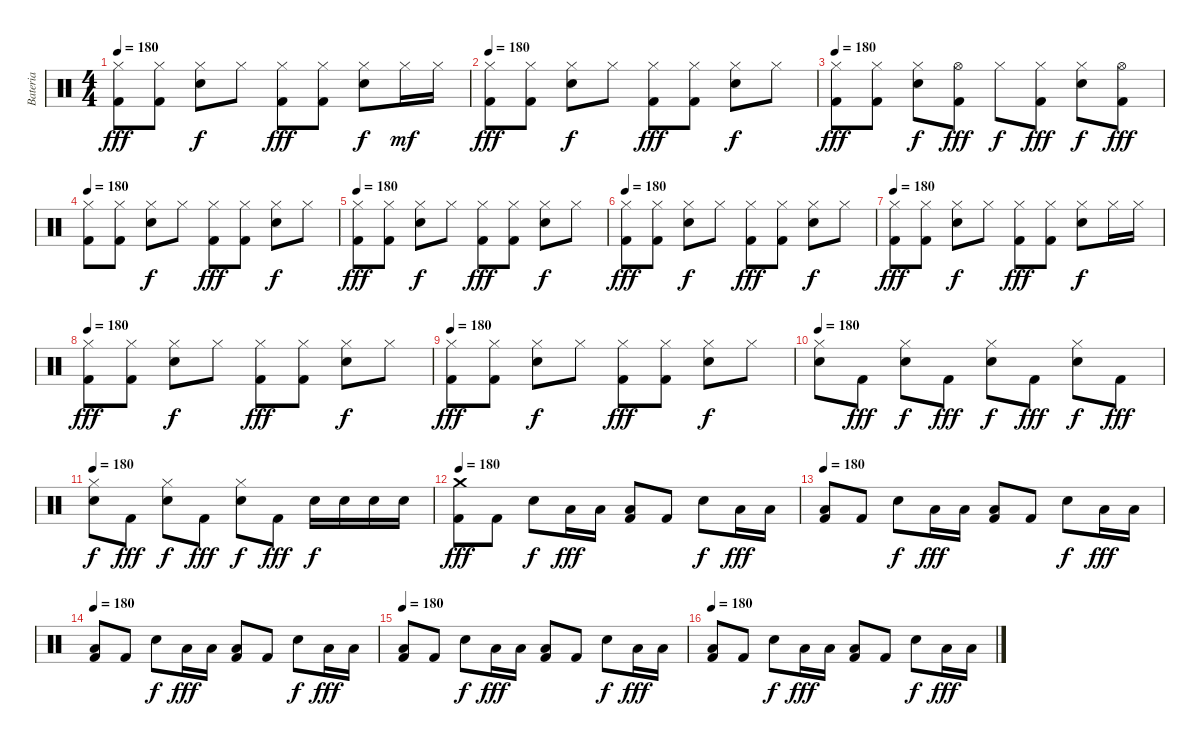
\track ("Bateria" "Bateria") {instrument percussion}
\staff {score}
\articulation defaults
\ts (4 4)
\tempo 180
\clef neutral
\ks c
("Hi-Hat (closed)" "Kick (hit) 2").8{dy fff} ("Hi-Hat (closed)" "Kick (hit) 2").8 ("Hi-Hat (closed)" "Electric Snare (hit)").8{dy f} "Hi-Hat (closed)".8 ("Hi-Hat (closed)" "Kick (hit) 2").8{dy fff} ("Hi-Hat (closed)" "Kick (hit) 2").8 ("Hi-Hat (closed)" "Electric Snare (hit)").8{dy f} "Hi-Hat (closed)".16{dy mf} "Hi-Hat (closed)".16 |
\tempo 180
("Hi-Hat (closed)" "Kick (hit) 2").8{dy fff} ("Hi-Hat (closed)" "Kick (hit) 2").8 ("Hi-Hat (closed)" "Electric Snare (hit)").8{dy f} "Hi-Hat (closed)".8 ("Hi-Hat (closed)" "Kick (hit) 2").8{dy fff} ("Hi-Hat (closed)" "Kick (hit) 2").8 ("Hi-Hat (closed)" "Electric Snare (hit)").8{dy f} "Hi-Hat (closed)".8 |
\tempo 180
("Hi-Hat (closed)" "Kick (hit) 2").8{dy fff} ("Hi-Hat (closed)" "Kick (hit) 2").8 ("Hi-Hat (closed)" "Electric Snare (hit)").8{dy f} ("Hi-Hat (open)" "Kick (hit) 2").8{dy fff} "Hi-Hat (closed)".8{dy f} ("Hi-Hat (closed)" "Kick (hit) 2").8{dy fff} ("Hi-Hat (closed)" "Electric Snare (hit)").8{dy f} ("Hi-Hat (open)" "Kick (hit) 2").8{dy fff} |
\tempo 180
("Hi-Hat (closed)" "Kick (hit) 2").8 ("Hi-Hat (closed)" "Kick (hit) 2").8 ("Hi-Hat (closed)" "Electric Snare (hit)").8{dy f} "Hi-Hat (closed)".8 ("Hi-Hat (closed)" "Kick (hit) 2").8{dy fff} ("Hi-Hat (closed)" "Kick (hit) 2").8 ("Hi-Hat (closed)" "Electric Snare (hit)").8{dy f} "Hi-Hat (closed)".8 |
\tempo 180
("Hi-Hat (closed)" "Kick (hit) 2").8{dy fff} ("Hi-Hat (closed)" "Kick (hit) 2").8 ("Hi-Hat (closed)" "Electric Snare (hit)").8{dy f} "Hi-Hat (closed)".8 ("Hi-Hat (closed)" "Kick (hit) 2").8{dy fff} ("Hi-Hat (closed)" "Kick (hit) 2").8 ("Hi-Hat (closed)" "Electric Snare (hit)").8{dy f} "Hi-Hat (closed)".8 |
\tempo 180
("Hi-Hat (closed)" "Kick (hit) 2").8{dy fff} ("Hi-Hat (closed)" "Kick (hit) 2").8 ("Hi-Hat (closed)" "Electric Snare (hit)").8{dy f} "Hi-Hat (closed)".8 ("Hi-Hat (closed)" "Kick (hit) 2").8{dy fff} ("Hi-Hat (closed)" "Kick (hit) 2").8 ("Hi-Hat (closed)" "Electric Snare (hit)").8{dy f} "Hi-Hat (closed)".8 |
\tempo 180
("Hi-Hat (closed)" "Kick (hit) 2").8{dy fff} ("Hi-Hat (closed)" "Kick (hit) 2").8 ("Hi-Hat (closed)" "Electric Snare (hit)").8{dy f} "Hi-Hat (closed)".8 ("Hi-Hat (closed)" "Kick (hit) 2").8{dy fff} ("Hi-Hat (closed)" "Kick (hit) 2").8 ("Hi-Hat (closed)" "Electric Snare (hit)").8{dy f} "Hi-Hat (closed)".16 "Hi-Hat (closed)".16 |
\tempo 180
("Hi-Hat (closed)" "Kick (hit) 2").8{dy fff} ("Hi-Hat (closed)" "Kick (hit) 2").8 ("Hi-Hat (closed)" "Electric Snare (hit)").8{dy f} "Hi-Hat (closed)".8 ("Hi-Hat (closed)" "Kick (hit) 2").8{dy fff} ("Hi-Hat (closed)" "Kick (hit) 2").8 ("Hi-Hat (closed)" "Electric Snare (hit)").8{dy f} "Hi-Hat (closed)".8 |
\tempo 180
("Hi-Hat (closed)" "Kick (hit) 2").8{dy fff} ("Hi-Hat (closed)" "Kick (hit) 2").8 ("Hi-Hat (closed)" "Electric Snare (hit)").8{dy f} "Hi-Hat (closed)".8 ("Hi-Hat (closed)" "Kick (hit) 2").8{dy fff} ("Hi-Hat (closed)" "Kick (hit) 2").8 ("Hi-Hat (closed)" "Electric Snare (hit)").8{dy f} "Hi-Hat (closed)".8 |
\tempo 180
("Hi-Hat (closed)" "Electric Snare (hit)").8 "Kick (hit) 2".8{dy fff} ("Hi-Hat (closed)" "Electric Snare (hit)").8{dy f} "Kick (hit) 2".8{dy fff} ("Hi-Hat (closed)" "Electric Snare (hit)").8{dy f} "Kick (hit) 2".8{dy fff} ("Hi-Hat (closed)" "Electric Snare (hit)").8{dy f} "Kick (hit) 2".8{dy fff} |
\tempo 180
("Hi-Hat (closed)" "Electric Snare (hit)").8{dy f} "Kick (hit) 2".8{dy fff} ("Hi-Hat (closed)" "Electric Snare (hit)").8{dy f} "Kick (hit) 2".8{dy fff} ("Hi-Hat (closed)" "Electric Snare (hit)").8{dy f} "Kick (hit) 2".8{dy fff} "Electric Snare (hit)".16{dy f} "Electric Snare (hit)".16 "Electric Snare (hit)".16 "Electric Snare (hit)".16 |
\tempo 180
("Crash medium (hit)" "Kick (hit) 2").8{dy fff} "Kick (hit) 2".8 "Electric Snare (hit)".8{dy f} "Low Tom (hit)".16{dy fff} "Low Tom (hit)".16 ("Low Tom (hit)" "Kick (hit) 2").8 "Kick (hit) 2".8 "Electric Snare (hit)".8{dy f} "Low Tom (hit)".16{dy fff} "Low Tom (hit)".16 |
\tempo 180
("Low Tom (hit)" "Kick (hit) 2").8 "Kick (hit) 2".8 "Electric Snare (hit)".8{dy f} "Low Tom (hit)".16{dy fff} "Low Tom (hit)".16 ("Low Tom (hit)" "Kick (hit) 2").8 "Kick (hit) 2".8 "Electric Snare (hit)".8{dy f} "Low Tom (hit)".16{dy fff} "Low Tom (hit)".16 |
\tempo 180
("Low Tom (hit)" "Kick (hit) 2").8 "Kick (hit) 2".8 "Electric Snare (hit)".8{dy f} "Low Tom (hit)".16{dy fff} "Low Tom (hit)".16 ("Low Tom (hit)" "Kick (hit) 2").8 "Kick (hit) 2".8 "Electric Snare (hit)".8{dy f} "Low Tom (hit)".16{dy fff} "Low Tom (hit)".16 |
\tempo 180
("Low Tom (hit)" "Kick (hit) 2").8 "Kick (hit) 2".8 "Electric Snare (hit)".8{dy f} "Low Tom (hit)".16{dy fff} "Low Tom (hit)".16 ("Low Tom (hit)" "Kick (hit) 2").8 "Kick (hit) 2".8 "Electric Snare (hit)".8{dy f} "Low Tom (hit)".16{dy fff} "Low Tom (hit)".16 |
\tempo 180
("Low Tom (hit)" "Kick (hit) 2").8 "Kick (hit) 2".8 "Electric Snare (hit)".8{dy f} "Low Tom (hit)".16{dy fff} "Low Tom (hit)".16 ("Low Tom (hit)" "Kick (hit) 2").8 "Kick (hit) 2".8 "Electric Snare (hit)".8{dy f} "Low Tom (hit)".16{dy fff} "Low Tom (hit)".16
